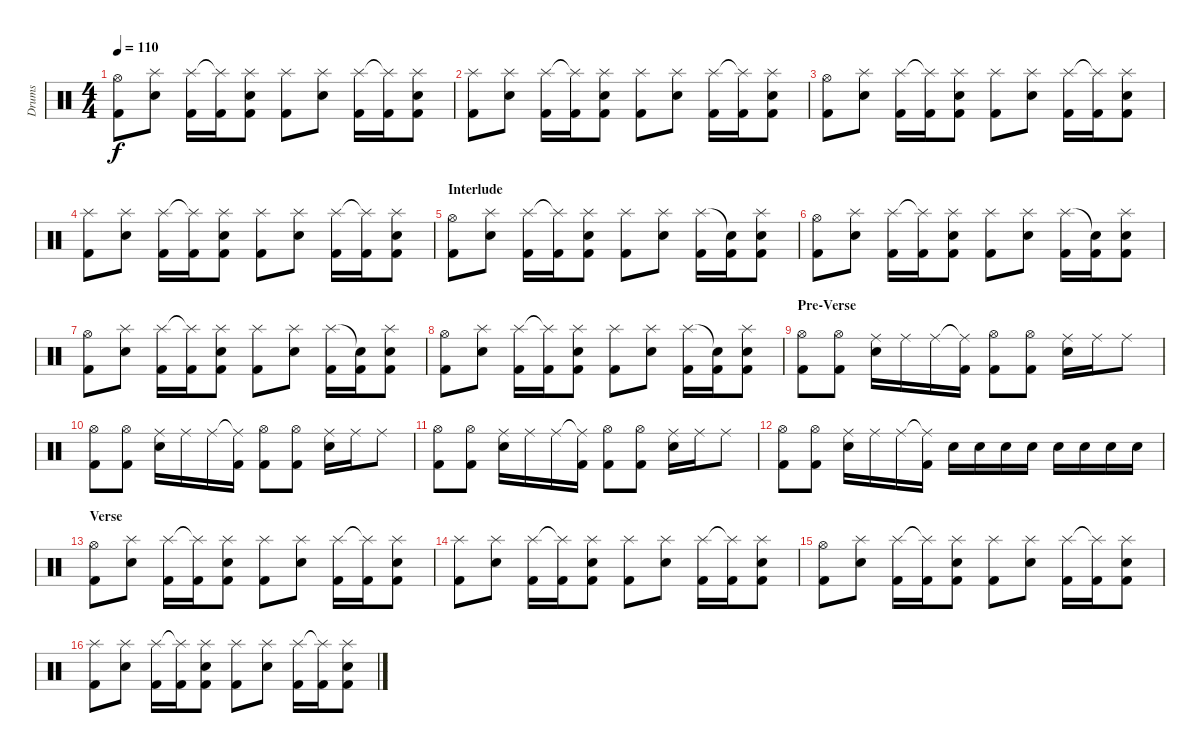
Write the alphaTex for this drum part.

\track ("Drums" "Drums") {instrument percussion}
\staff {score}
\articulation defaults
\ts (4 4)
\tempo 110
\clef neutral
\ks c
("Hi-Hat (open)" "Kick (hit) 2").8{dy f} ("Splash (hit)" "Electric Snare (hit)").8 ("Splash (hit)" "Kick (hit) 2").16 ("Splash (hit)"{t} "Kick (hit) 2").16 ("Splash (hit)" "Electric Snare (hit)" "Kick (hit) 2").8 ("Splash (hit)" "Kick (hit) 2").8 ("Splash (hit)" "Electric Snare (hit)").8 ("Splash (hit)" "Kick (hit) 2").16 ("Splash (hit)"{t} "Kick (hit) 2").16 ("Splash (hit)" "Electric Snare (hit)" "Kick (hit) 2").8 |
("Splash (hit)" "Kick (hit) 2").8 ("Splash (hit)" "Electric Snare (hit)").8 ("Splash (hit)" "Kick (hit) 2").16 ("Splash (hit)"{t} "Kick (hit) 2").16 ("Splash (hit)" "Electric Snare (hit)" "Kick (hit) 2").8 ("Splash (hit)" "Kick (hit) 2").8 ("Splash (hit)" "Electric Snare (hit)").8 ("Splash (hit)" "Kick (hit) 2").16 ("Splash (hit)"{t} "Kick (hit) 2").16 ("Splash (hit)" "Electric Snare (hit)" "Kick (hit) 2").8 |
("Hi-Hat (open)" "Kick (hit) 2").8 ("Splash (hit)" "Electric Snare (hit)").8 ("Splash (hit)" "Kick (hit) 2").16 ("Splash (hit)"{t} "Kick (hit) 2").16 ("Splash (hit)" "Electric Snare (hit)" "Kick (hit) 2").8 ("Splash (hit)" "Kick (hit) 2").8 ("Splash (hit)" "Electric Snare (hit)").8 ("Splash (hit)" "Kick (hit) 2").16 ("Splash (hit)"{t} "Kick (hit) 2").16 ("Splash (hit)" "Electric Snare (hit)" "Kick (hit) 2").8 |
("Splash (hit)" "Kick (hit) 2").8 ("Splash (hit)" "Electric Snare (hit)").8 ("Splash (hit)" "Kick (hit) 2").16 ("Splash (hit)"{t} "Kick (hit) 2").16 ("Splash (hit)" "Electric Snare (hit)" "Kick (hit) 2").8 ("Splash (hit)" "Kick (hit) 2").8 ("Splash (hit)" "Electric Snare (hit)").8 ("Splash (hit)" "Kick (hit) 2").16 ("Splash (hit)"{t} "Kick (hit) 2").16 ("Splash (hit)" "Electric Snare (hit)" "Kick (hit) 2").8 |
\section ("" "Interlude")
("Hi-Hat (open)" "Kick (hit) 2").8 ("Splash (hit)" "Electric Snare (hit)").8 ("Splash (hit)" "Kick (hit) 2").16 ("Splash (hit)"{t} "Kick (hit) 2").16 ("Splash (hit)" "Electric Snare (hit)" "Kick (hit) 2").8 ("Splash (hit)" "Kick (hit) 2").8 ("Splash (hit)" "Electric Snare (hit)").8 ("Splash (hit)" "Kick (hit) 2").16 ("Snare (hit)"{t} "Kick (hit) 2").16 ("Splash (hit)" "Electric Snare (hit)" "Kick (hit) 2").8 |
("Hi-Hat (open)" "Kick (hit) 2").8 ("Splash (hit)" "Electric Snare (hit)").8 ("Splash (hit)" "Kick (hit) 2").16 ("Splash (hit)"{t} "Kick (hit) 2").16 ("Splash (hit)" "Electric Snare (hit)" "Kick (hit) 2").8 ("Splash (hit)" "Kick (hit) 2").8 ("Splash (hit)" "Electric Snare (hit)").8 ("Splash (hit)" "Kick (hit) 2").16 ("Snare (hit)"{t} "Kick (hit) 2").16 ("Splash (hit)" "Electric Snare (hit)" "Kick (hit) 2").8 |
("Hi-Hat (open)" "Kick (hit) 2").8 ("Splash (hit)" "Electric Snare (hit)").8 ("Splash (hit)" "Kick (hit) 2").16 ("Splash (hit)"{t} "Kick (hit) 2").16 ("Splash (hit)" "Electric Snare (hit)" "Kick (hit) 2").8 ("Splash (hit)" "Kick (hit) 2").8 ("Splash (hit)" "Electric Snare (hit)").8 ("Splash (hit)" "Kick (hit) 2").16 ("Snare (hit)"{t} "Kick (hit) 2").16 ("Splash (hit)" "Electric Snare (hit)" "Kick (hit) 2").8 |
("Hi-Hat (open)" "Kick (hit) 2").8 ("Splash (hit)" "Electric Snare (hit)").8 ("Splash (hit)" "Kick (hit) 2").16 ("Splash (hit)"{t} "Kick (hit) 2").16 ("Splash (hit)" "Electric Snare (hit)" "Kick (hit) 2").8 ("Splash (hit)" "Kick (hit) 2").8 ("Splash (hit)" "Electric Snare (hit)").8 ("Splash (hit)" "Kick (hit) 2").16 ("Snare (hit)"{t} "Kick (hit) 2").16 ("Splash (hit)" "Electric Snare (hit)" "Kick (hit) 2").8 |
\section ("" "Pre-Verse")
("Hi-Hat (open)" "Kick (hit) 2").8 ("Hi-Hat (open)" "Kick (hit) 2").8 ("Ride (middle)" "Electric Snare (hit)").16 "Ride (middle)".16 "Ride (middle)".16 ("Ride (middle)"{t} "Kick (hit) 2").16 ("Hi-Hat (open)" "Kick (hit) 2").8 ("Hi-Hat (open)" "Kick (hit) 2").8 ("Ride (middle)" "Electric Snare (hit)").16 "Ride (middle)".16 "Ride (middle)".8 |
("Hi-Hat (open)" "Kick (hit) 2").8 ("Hi-Hat (open)" "Kick (hit) 2").8 ("Ride (middle)" "Electric Snare (hit)").16 "Ride (middle)".16 "Ride (middle)".16 ("Ride (middle)"{t} "Kick (hit) 2").16 ("Hi-Hat (open)" "Kick (hit) 2").8 ("Hi-Hat (open)" "Kick (hit) 2").8 ("Ride (middle)" "Electric Snare (hit)").16 "Ride (middle)".16 "Ride (middle)".8 |
("Hi-Hat (open)" "Kick (hit) 2").8 ("Hi-Hat (open)" "Kick (hit) 2").8 ("Ride (middle)" "Electric Snare (hit)").16 "Ride (middle)".16 "Ride (middle)".16 ("Ride (middle)"{t} "Kick (hit) 2").16 ("Hi-Hat (open)" "Kick (hit) 2").8 ("Hi-Hat (open)" "Kick (hit) 2").8 ("Ride (middle)" "Electric Snare (hit)").16 "Ride (middle)".16 "Ride (middle)".8 |
("Hi-Hat (open)" "Kick (hit) 2").8 ("Hi-Hat (open)" "Kick (hit) 2").8 ("Ride (middle)" "Electric Snare (hit)").16 "Ride (middle)".16 "Ride (middle)".16 ("Ride (middle)"{t} "Kick (hit) 2").16 "Electric Snare (hit)".16 "Electric Snare (hit)".16 "Electric Snare (hit)".16 "Electric Snare (hit)".16 "Electric Snare (hit)".16 "Electric Snare (hit)".16 "Electric Snare (hit)".16 "Electric Snare (hit)".16 |
\section ("" "Verse")
("Hi-Hat (open)" "Kick (hit) 2").8 ("Splash (hit)" "Electric Snare (hit)").8 ("Splash (hit)" "Kick (hit) 2").16 ("Splash (hit)"{t} "Kick (hit) 2").16 ("Splash (hit)" "Electric Snare (hit)" "Kick (hit) 2").8 ("Splash (hit)" "Kick (hit) 2").8 ("Splash (hit)" "Electric Snare (hit)").8 ("Splash (hit)" "Kick (hit) 2").16 ("Splash (hit)"{t} "Kick (hit) 2").16 ("Splash (hit)" "Electric Snare (hit)" "Kick (hit) 2").8 |
("Splash (hit)" "Kick (hit) 2").8 ("Splash (hit)" "Electric Snare (hit)").8 ("Splash (hit)" "Kick (hit) 2").16 ("Splash (hit)"{t} "Kick (hit) 2").16 ("Splash (hit)" "Electric Snare (hit)" "Kick (hit) 2").8 ("Splash (hit)" "Kick (hit) 2").8 ("Splash (hit)" "Electric Snare (hit)").8 ("Splash (hit)" "Kick (hit) 2").16 ("Splash (hit)"{t} "Kick (hit) 2").16 ("Splash (hit)" "Electric Snare (hit)" "Kick (hit) 2").8 |
("Hi-Hat (open)" "Kick (hit) 2").8 ("Splash (hit)" "Electric Snare (hit)").8 ("Splash (hit)" "Kick (hit) 2").16 ("Splash (hit)"{t} "Kick (hit) 2").16 ("Splash (hit)" "Electric Snare (hit)" "Kick (hit) 2").8 ("Splash (hit)" "Kick (hit) 2").8 ("Splash (hit)" "Electric Snare (hit)").8 ("Splash (hit)" "Kick (hit) 2").16 ("Splash (hit)"{t} "Kick (hit) 2").16 ("Splash (hit)" "Electric Snare (hit)" "Kick (hit) 2").8 |
("Splash (hit)" "Kick (hit) 2").8 ("Splash (hit)" "Electric Snare (hit)").8 ("Splash (hit)" "Kick (hit) 2").16 ("Splash (hit)"{t} "Kick (hit) 2").16 ("Splash (hit)" "Electric Snare (hit)" "Kick (hit) 2").8 ("Splash (hit)" "Kick (hit) 2").8 ("Splash (hit)" "Electric Snare (hit)").8 ("Splash (hit)" "Kick (hit) 2").16 ("Splash (hit)"{t} "Kick (hit) 2").16 ("Splash (hit)" "Electric Snare (hit)" "Kick (hit) 2").8
